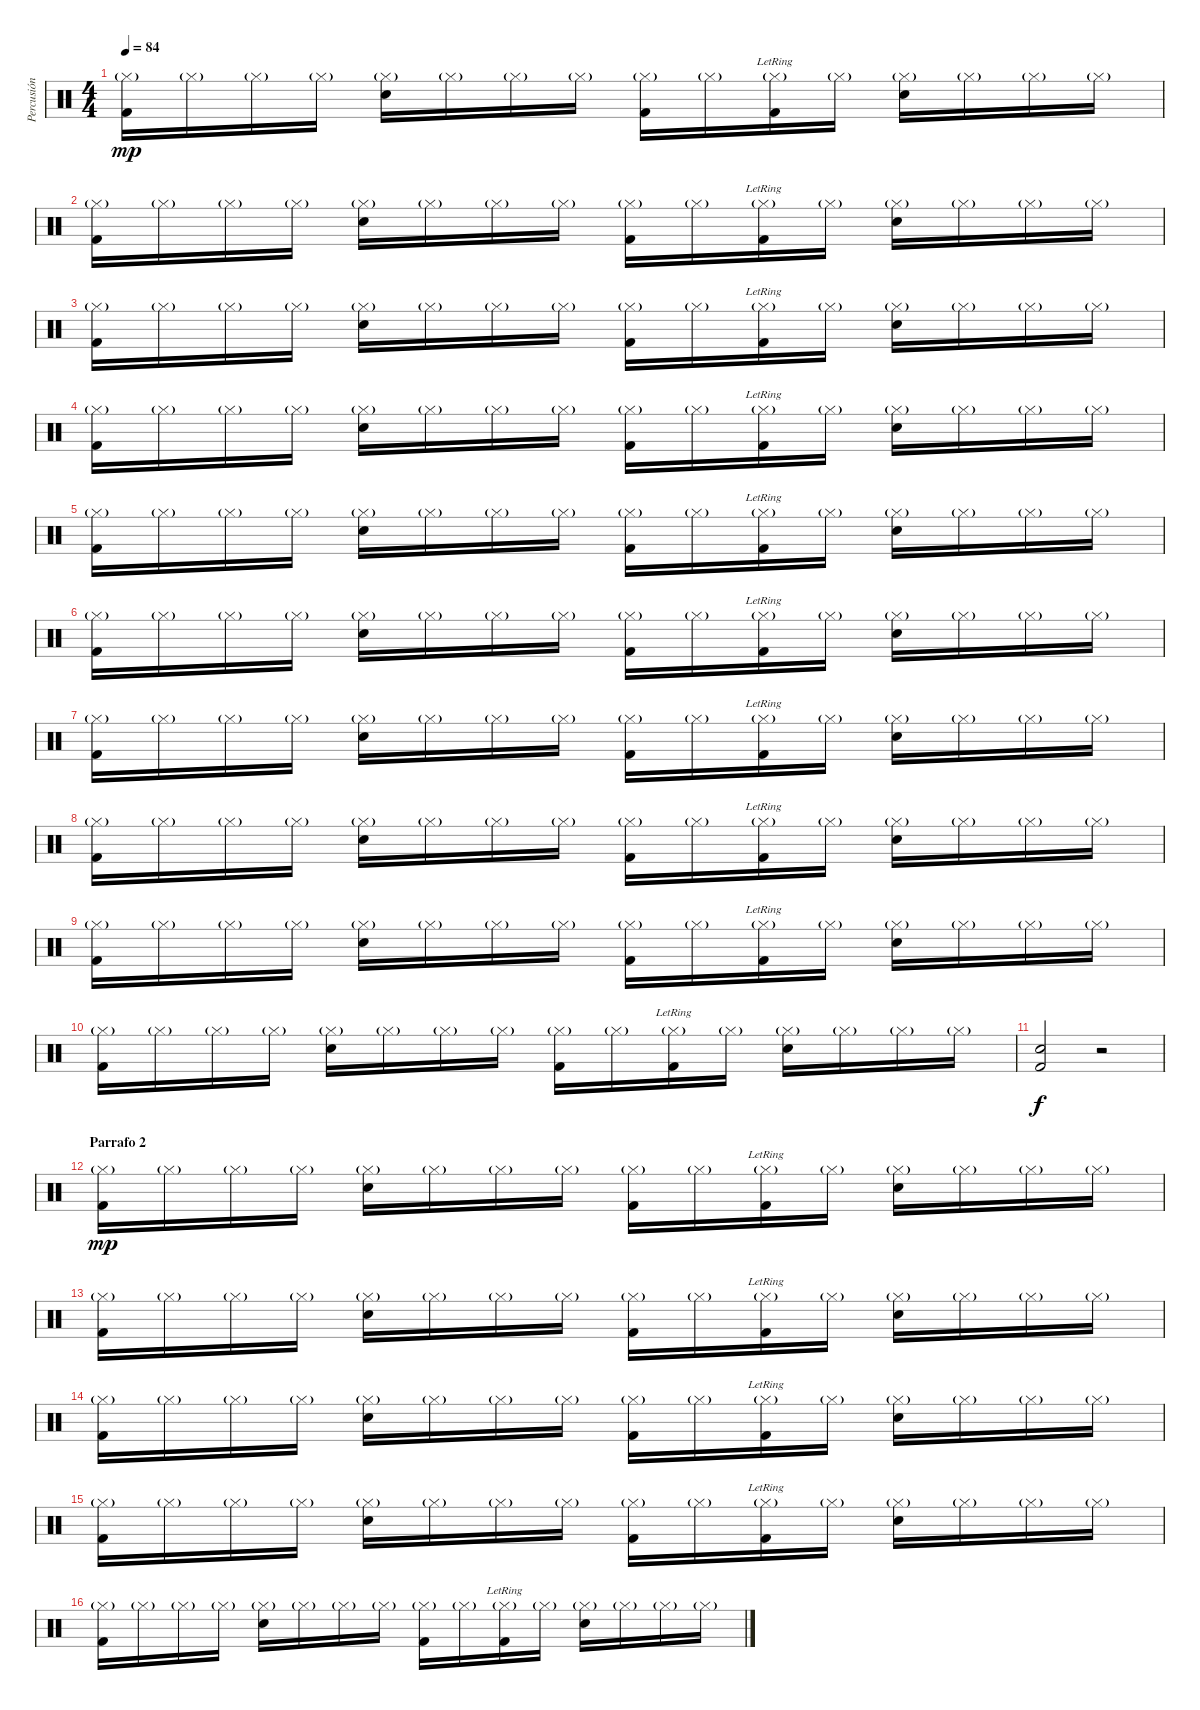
\track ("Percusión 2" "Percusión ") {instrument percussion}
\staff {score}
\articulation defaults
\ts (4 4)
\tempo 84
\clef neutral
\ks c
("Hi-Hat (closed)"{g} "Kick (hit) 2").16{dy mp} "Hi-Hat (closed)"{g}.16 "Hi-Hat (closed)"{g}.16 "Hi-Hat (closed)"{g}.16 ("Hi-Hat (closed)"{g} "Snare (hit) 2").16 "Hi-Hat (closed)"{g}.16 "Hi-Hat (closed)"{g}.16 "Hi-Hat (closed)"{g}.16 ("Hi-Hat (closed)"{g} "Kick (hit) 2").16 "Hi-Hat (closed)"{g}.16 ("Hi-Hat (closed)"{g} "Kick (hit) 2"{lr}).16 "Hi-Hat (closed)"{g}.16 ("Hi-Hat (closed)"{g} "Snare (hit) 2").16 "Hi-Hat (closed)"{g}.16 "Hi-Hat (closed)"{g}.16 "Hi-Hat (closed)"{g}.16 |
("Hi-Hat (closed)"{g} "Kick (hit) 2").16 "Hi-Hat (closed)"{g}.16 "Hi-Hat (closed)"{g}.16 "Hi-Hat (closed)"{g}.16 ("Hi-Hat (closed)"{g} "Snare (hit) 2").16 "Hi-Hat (closed)"{g}.16 "Hi-Hat (closed)"{g}.16 "Hi-Hat (closed)"{g}.16 ("Hi-Hat (closed)"{g} "Kick (hit) 2").16 "Hi-Hat (closed)"{g}.16 ("Hi-Hat (closed)"{g} "Kick (hit) 2"{lr}).16 "Hi-Hat (closed)"{g}.16 ("Hi-Hat (closed)"{g} "Snare (hit) 2").16 "Hi-Hat (closed)"{g}.16 "Hi-Hat (closed)"{g}.16 "Hi-Hat (closed)"{g}.16 |
("Hi-Hat (closed)"{g} "Kick (hit) 2").16 "Hi-Hat (closed)"{g}.16 "Hi-Hat (closed)"{g}.16 "Hi-Hat (closed)"{g}.16 ("Hi-Hat (closed)"{g} "Snare (hit) 2").16 "Hi-Hat (closed)"{g}.16 "Hi-Hat (closed)"{g}.16 "Hi-Hat (closed)"{g}.16 ("Hi-Hat (closed)"{g} "Kick (hit) 2").16 "Hi-Hat (closed)"{g}.16 ("Hi-Hat (closed)"{g} "Kick (hit) 2"{lr}).16 "Hi-Hat (closed)"{g}.16 ("Hi-Hat (closed)"{g} "Snare (hit) 2").16 "Hi-Hat (closed)"{g}.16 "Hi-Hat (closed)"{g}.16 "Hi-Hat (closed)"{g}.16 |
("Hi-Hat (closed)"{g} "Kick (hit) 2").16 "Hi-Hat (closed)"{g}.16 "Hi-Hat (closed)"{g}.16 "Hi-Hat (closed)"{g}.16 ("Hi-Hat (closed)"{g} "Snare (hit) 2").16 "Hi-Hat (closed)"{g}.16 "Hi-Hat (closed)"{g}.16 "Hi-Hat (closed)"{g}.16 ("Hi-Hat (closed)"{g} "Kick (hit) 2").16 "Hi-Hat (closed)"{g}.16 ("Hi-Hat (closed)"{g} "Kick (hit) 2"{lr}).16 "Hi-Hat (closed)"{g}.16 ("Hi-Hat (closed)"{g} "Snare (hit) 2").16 "Hi-Hat (closed)"{g}.16 "Hi-Hat (closed)"{g}.16 "Hi-Hat (closed)"{g}.16 |
("Hi-Hat (closed)"{g} "Kick (hit) 2").16 "Hi-Hat (closed)"{g}.16 "Hi-Hat (closed)"{g}.16 "Hi-Hat (closed)"{g}.16 ("Hi-Hat (closed)"{g} "Snare (hit) 2").16 "Hi-Hat (closed)"{g}.16 "Hi-Hat (closed)"{g}.16 "Hi-Hat (closed)"{g}.16 ("Hi-Hat (closed)"{g} "Kick (hit) 2").16 "Hi-Hat (closed)"{g}.16 ("Hi-Hat (closed)"{g} "Kick (hit) 2"{lr}).16 "Hi-Hat (closed)"{g}.16 ("Hi-Hat (closed)"{g} "Snare (hit) 2").16 "Hi-Hat (closed)"{g}.16 "Hi-Hat (closed)"{g}.16 "Hi-Hat (closed)"{g}.16 |
("Hi-Hat (closed)"{g} "Kick (hit) 2").16 "Hi-Hat (closed)"{g}.16 "Hi-Hat (closed)"{g}.16 "Hi-Hat (closed)"{g}.16 ("Hi-Hat (closed)"{g} "Snare (hit) 2").16 "Hi-Hat (closed)"{g}.16 "Hi-Hat (closed)"{g}.16 "Hi-Hat (closed)"{g}.16 ("Hi-Hat (closed)"{g} "Kick (hit) 2").16 "Hi-Hat (closed)"{g}.16 ("Hi-Hat (closed)"{g} "Kick (hit) 2"{lr}).16 "Hi-Hat (closed)"{g}.16 ("Hi-Hat (closed)"{g} "Snare (hit) 2").16 "Hi-Hat (closed)"{g}.16 "Hi-Hat (closed)"{g}.16 "Hi-Hat (closed)"{g}.16 |
("Hi-Hat (closed)"{g} "Kick (hit) 2").16 "Hi-Hat (closed)"{g}.16 "Hi-Hat (closed)"{g}.16 "Hi-Hat (closed)"{g}.16 ("Hi-Hat (closed)"{g} "Snare (hit) 2").16 "Hi-Hat (closed)"{g}.16 "Hi-Hat (closed)"{g}.16 "Hi-Hat (closed)"{g}.16 ("Hi-Hat (closed)"{g} "Kick (hit) 2").16 "Hi-Hat (closed)"{g}.16 ("Hi-Hat (closed)"{g} "Kick (hit) 2"{lr}).16 "Hi-Hat (closed)"{g}.16 ("Hi-Hat (closed)"{g} "Snare (hit) 2").16 "Hi-Hat (closed)"{g}.16 "Hi-Hat (closed)"{g}.16 "Hi-Hat (closed)"{g}.16 |
("Hi-Hat (closed)"{g} "Kick (hit) 2").16 "Hi-Hat (closed)"{g}.16 "Hi-Hat (closed)"{g}.16 "Hi-Hat (closed)"{g}.16 ("Hi-Hat (closed)"{g} "Snare (hit) 2").16 "Hi-Hat (closed)"{g}.16 "Hi-Hat (closed)"{g}.16 "Hi-Hat (closed)"{g}.16 ("Hi-Hat (closed)"{g} "Kick (hit) 2").16 "Hi-Hat (closed)"{g}.16 ("Hi-Hat (closed)"{g} "Kick (hit) 2"{lr}).16 "Hi-Hat (closed)"{g}.16 ("Hi-Hat (closed)"{g} "Snare (hit) 2").16 "Hi-Hat (closed)"{g}.16 "Hi-Hat (closed)"{g}.16 "Hi-Hat (closed)"{g}.16 |
("Hi-Hat (closed)"{g} "Kick (hit) 2").16 "Hi-Hat (closed)"{g}.16 "Hi-Hat (closed)"{g}.16 "Hi-Hat (closed)"{g}.16 ("Hi-Hat (closed)"{g} "Snare (hit) 2").16 "Hi-Hat (closed)"{g}.16 "Hi-Hat (closed)"{g}.16 "Hi-Hat (closed)"{g}.16 ("Hi-Hat (closed)"{g} "Kick (hit) 2").16 "Hi-Hat (closed)"{g}.16 ("Hi-Hat (closed)"{g} "Kick (hit) 2"{lr}).16 "Hi-Hat (closed)"{g}.16 ("Hi-Hat (closed)"{g} "Snare (hit) 2").16 "Hi-Hat (closed)"{g}.16 "Hi-Hat (closed)"{g}.16 "Hi-Hat (closed)"{g}.16 |
("Hi-Hat (closed)"{g} "Kick (hit) 2").16 "Hi-Hat (closed)"{g}.16 "Hi-Hat (closed)"{g}.16 "Hi-Hat (closed)"{g}.16 ("Hi-Hat (closed)"{g} "Snare (hit) 2").16 "Hi-Hat (closed)"{g}.16 "Hi-Hat (closed)"{g}.16 "Hi-Hat (closed)"{g}.16 ("Hi-Hat (closed)"{g} "Kick (hit) 2").16 "Hi-Hat (closed)"{g}.16 ("Hi-Hat (closed)"{g} "Kick (hit) 2"{lr}).16 "Hi-Hat (closed)"{g}.16 ("Hi-Hat (closed)"{g} "Snare (hit) 2").16 "Hi-Hat (closed)"{g}.16 "Hi-Hat (closed)"{g}.16 "Hi-Hat (closed)"{g}.16 |
("Snare (hit) 2" "Kick (hit) 2").2{dy f} r.2 |
\section ("" "Parrafo 2")
("Hi-Hat (closed)"{g} "Kick (hit) 2").16{dy mp} "Hi-Hat (closed)"{g}.16 "Hi-Hat (closed)"{g}.16 "Hi-Hat (closed)"{g}.16 ("Hi-Hat (closed)"{g} "Snare (hit) 2").16 "Hi-Hat (closed)"{g}.16 "Hi-Hat (closed)"{g}.16 "Hi-Hat (closed)"{g}.16 ("Hi-Hat (closed)"{g} "Kick (hit) 2").16 "Hi-Hat (closed)"{g}.16 ("Hi-Hat (closed)"{g} "Kick (hit) 2"{lr}).16 "Hi-Hat (closed)"{g}.16 ("Hi-Hat (closed)"{g} "Snare (hit) 2").16 "Hi-Hat (closed)"{g}.16 "Hi-Hat (closed)"{g}.16 "Hi-Hat (closed)"{g}.16 |
("Hi-Hat (closed)"{g} "Kick (hit) 2").16 "Hi-Hat (closed)"{g}.16 "Hi-Hat (closed)"{g}.16 "Hi-Hat (closed)"{g}.16 ("Hi-Hat (closed)"{g} "Snare (hit) 2").16 "Hi-Hat (closed)"{g}.16 "Hi-Hat (closed)"{g}.16 "Hi-Hat (closed)"{g}.16 ("Hi-Hat (closed)"{g} "Kick (hit) 2").16 "Hi-Hat (closed)"{g}.16 ("Hi-Hat (closed)"{g} "Kick (hit) 2"{lr}).16 "Hi-Hat (closed)"{g}.16 ("Hi-Hat (closed)"{g} "Snare (hit) 2").16 "Hi-Hat (closed)"{g}.16 "Hi-Hat (closed)"{g}.16 "Hi-Hat (closed)"{g}.16 |
("Hi-Hat (closed)"{g} "Kick (hit) 2").16 "Hi-Hat (closed)"{g}.16 "Hi-Hat (closed)"{g}.16 "Hi-Hat (closed)"{g}.16 ("Hi-Hat (closed)"{g} "Snare (hit) 2").16 "Hi-Hat (closed)"{g}.16 "Hi-Hat (closed)"{g}.16 "Hi-Hat (closed)"{g}.16 ("Hi-Hat (closed)"{g} "Kick (hit) 2").16 "Hi-Hat (closed)"{g}.16 ("Hi-Hat (closed)"{g} "Kick (hit) 2"{lr}).16 "Hi-Hat (closed)"{g}.16 ("Hi-Hat (closed)"{g} "Snare (hit) 2").16 "Hi-Hat (closed)"{g}.16 "Hi-Hat (closed)"{g}.16 "Hi-Hat (closed)"{g}.16 |
("Hi-Hat (closed)"{g} "Kick (hit) 2").16 "Hi-Hat (closed)"{g}.16 "Hi-Hat (closed)"{g}.16 "Hi-Hat (closed)"{g}.16 ("Hi-Hat (closed)"{g} "Snare (hit) 2").16 "Hi-Hat (closed)"{g}.16 "Hi-Hat (closed)"{g}.16 "Hi-Hat (closed)"{g}.16 ("Hi-Hat (closed)"{g} "Kick (hit) 2").16 "Hi-Hat (closed)"{g}.16 ("Hi-Hat (closed)"{g} "Kick (hit) 2"{lr}).16 "Hi-Hat (closed)"{g}.16 ("Hi-Hat (closed)"{g} "Snare (hit) 2").16 "Hi-Hat (closed)"{g}.16 "Hi-Hat (closed)"{g}.16 "Hi-Hat (closed)"{g}.16 |
("Hi-Hat (closed)"{g} "Kick (hit) 2").16 "Hi-Hat (closed)"{g}.16 "Hi-Hat (closed)"{g}.16 "Hi-Hat (closed)"{g}.16 ("Hi-Hat (closed)"{g} "Snare (hit) 2").16 "Hi-Hat (closed)"{g}.16 "Hi-Hat (closed)"{g}.16 "Hi-Hat (closed)"{g}.16 ("Hi-Hat (closed)"{g} "Kick (hit) 2").16 "Hi-Hat (closed)"{g}.16 ("Hi-Hat (closed)"{g} "Kick (hit) 2"{lr}).16 "Hi-Hat (closed)"{g}.16 ("Hi-Hat (closed)"{g} "Snare (hit) 2").16 "Hi-Hat (closed)"{g}.16 "Hi-Hat (closed)"{g}.16 "Hi-Hat (closed)"{g}.16
